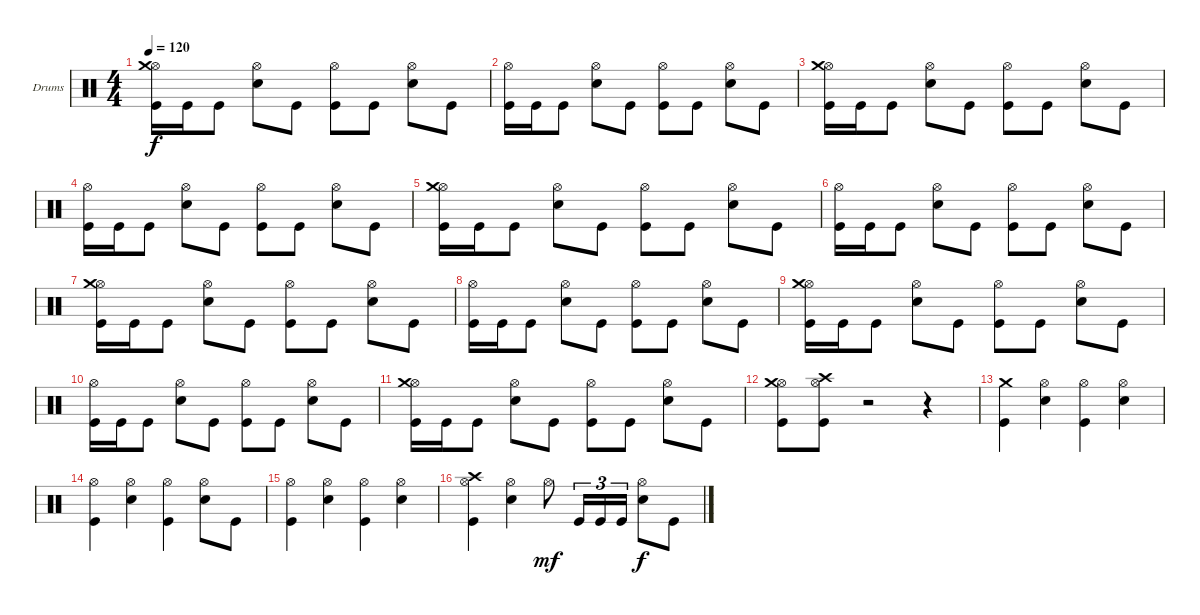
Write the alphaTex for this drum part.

\defaultSystemsLayout 4
\bracketExtendMode groupsimilarinstruments
\firstSystemTrackNameOrientation horizontal
\otherSystemsTrackNameOrientation horizontal
\track ("Drumkit" "Drums") {instrument percussion}
\staff {score}
\articulation defaults
\ts (4 4)
\tempo 120
\clef neutral
\ks c
("Kick (hit)" "Hi-Hat (open)" "Crash medium (hit)").16{dy f} "Kick (hit)".16 "Kick (hit)".8 ("Snare (hit) 2" "Hi-Hat (open)").8 "Kick (hit)".8 ("Kick (hit)" "Hi-Hat (open)").8 "Kick (hit)".8 ("Snare (hit) 2" "Hi-Hat (open)").8 "Kick (hit)".8 |
("Kick (hit)" "Hi-Hat (open)").16 "Kick (hit)".16 "Kick (hit)".8 ("Snare (hit) 2" "Hi-Hat (open)").8 "Kick (hit)".8 ("Kick (hit)" "Hi-Hat (open)").8 "Kick (hit)".8 ("Snare (hit) 2" "Hi-Hat (open)").8 "Kick (hit)".8 |
("Kick (hit)" "Hi-Hat (open)" "Crash medium (hit)").16 "Kick (hit)".16 "Kick (hit)".8 ("Snare (hit) 2" "Hi-Hat (open)").8 "Kick (hit)".8 ("Kick (hit)" "Hi-Hat (open)").8 "Kick (hit)".8 ("Snare (hit) 2" "Hi-Hat (open)").8 "Kick (hit)".8 |
("Kick (hit)" "Hi-Hat (open)").16 "Kick (hit)".16 "Kick (hit)".8 ("Snare (hit) 2" "Hi-Hat (open)").8 "Kick (hit)".8 ("Kick (hit)" "Hi-Hat (open)").8 "Kick (hit)".8 ("Snare (hit) 2" "Hi-Hat (open)").8 "Kick (hit)".8 |
("Kick (hit)" "Hi-Hat (open)" "Crash medium (hit)").16 "Kick (hit)".16 "Kick (hit)".8 ("Snare (hit) 2" "Hi-Hat (open)").8 "Kick (hit)".8 ("Kick (hit)" "Hi-Hat (open)").8 "Kick (hit)".8 ("Snare (hit) 2" "Hi-Hat (open)").8 "Kick (hit)".8 |
("Kick (hit)" "Hi-Hat (open)").16 "Kick (hit)".16 "Kick (hit)".8 ("Snare (hit) 2" "Hi-Hat (open)").8 "Kick (hit)".8 ("Kick (hit)" "Hi-Hat (open)").8 "Kick (hit)".8 ("Snare (hit) 2" "Hi-Hat (open)").8 "Kick (hit)".8 |
("Kick (hit)" "Hi-Hat (open)" "Crash medium (hit)").16 "Kick (hit)".16 "Kick (hit)".8 ("Snare (hit) 2" "Hi-Hat (open)").8 "Kick (hit)".8 ("Kick (hit)" "Hi-Hat (open)").8 "Kick (hit)".8 ("Snare (hit) 2" "Hi-Hat (open)").8 "Kick (hit)".8 |
("Kick (hit)" "Hi-Hat (open)").16 "Kick (hit)".16 "Kick (hit)".8 ("Snare (hit) 2" "Hi-Hat (open)").8 "Kick (hit)".8 ("Kick (hit)" "Hi-Hat (open)").8 "Kick (hit)".8 ("Snare (hit) 2" "Hi-Hat (open)").8 "Kick (hit)".8 |
("Kick (hit)" "Hi-Hat (open)" "Crash medium (hit)").16 "Kick (hit)".16 "Kick (hit)".8 ("Snare (hit) 2" "Hi-Hat (open)").8 "Kick (hit)".8 ("Kick (hit)" "Hi-Hat (open)").8 "Kick (hit)".8 ("Snare (hit) 2" "Hi-Hat (open)").8 "Kick (hit)".8 |
("Kick (hit)" "Hi-Hat (open)").16 "Kick (hit)".16 "Kick (hit)".8 ("Snare (hit) 2" "Hi-Hat (open)").8 "Kick (hit)".8 ("Kick (hit)" "Hi-Hat (open)").8 "Kick (hit)".8 ("Snare (hit) 2" "Hi-Hat (open)").8 "Kick (hit)".8 |
("Kick (hit)" "Hi-Hat (open)" "Crash medium (hit)").16 "Kick (hit)".16 "Kick (hit)".8 ("Snare (hit) 2" "Hi-Hat (open)").8 "Kick (hit)".8 ("Kick (hit)" "Hi-Hat (open)").8 "Kick (hit)".8 ("Snare (hit) 2" "Hi-Hat (open)").8 "Kick (hit)".8 |
("Kick (hit)" "Hi-Hat (open)" "Crash medium (hit)").8 ("Kick (hit)" "Hi-Hat (open)" "Crash high (hit)").8 r.2 r.4 |
("Kick (hit)" "Crash medium (hit)").4 ("Snare (hit) 2" "Hi-Hat (open)").4 ("Kick (hit)" "Hi-Hat (open)").4 ("Snare (hit) 2" "Hi-Hat (open)").4 |
("Kick (hit)" "Hi-Hat (open)").4 ("Snare (hit) 2" "Hi-Hat (open)").4 ("Kick (hit)" "Hi-Hat (open)").4 ("Snare (hit) 2" "Hi-Hat (open)").8 "Kick (hit)".8 |
("Kick (hit)" "Hi-Hat (open)").4 ("Snare (hit) 2" "Hi-Hat (open)").4 ("Kick (hit)" "Hi-Hat (open)").4 ("Snare (hit) 2" "Hi-Hat (open)").4 |
("Kick (hit)" "Hi-Hat (open)" "Crash high (hit)").4 ("Snare (hit) 2" "Hi-Hat (open)").4 "Hi-Hat (open)".8{dy mf} "Kick (hit)".16{tu (3 2)} "Kick (hit)".16{tu (3 2)} "Kick (hit)".16{tu (3 2)} ("Snare (hit) 2" "Hi-Hat (open)").8{dy f} "Kick (hit)".8
